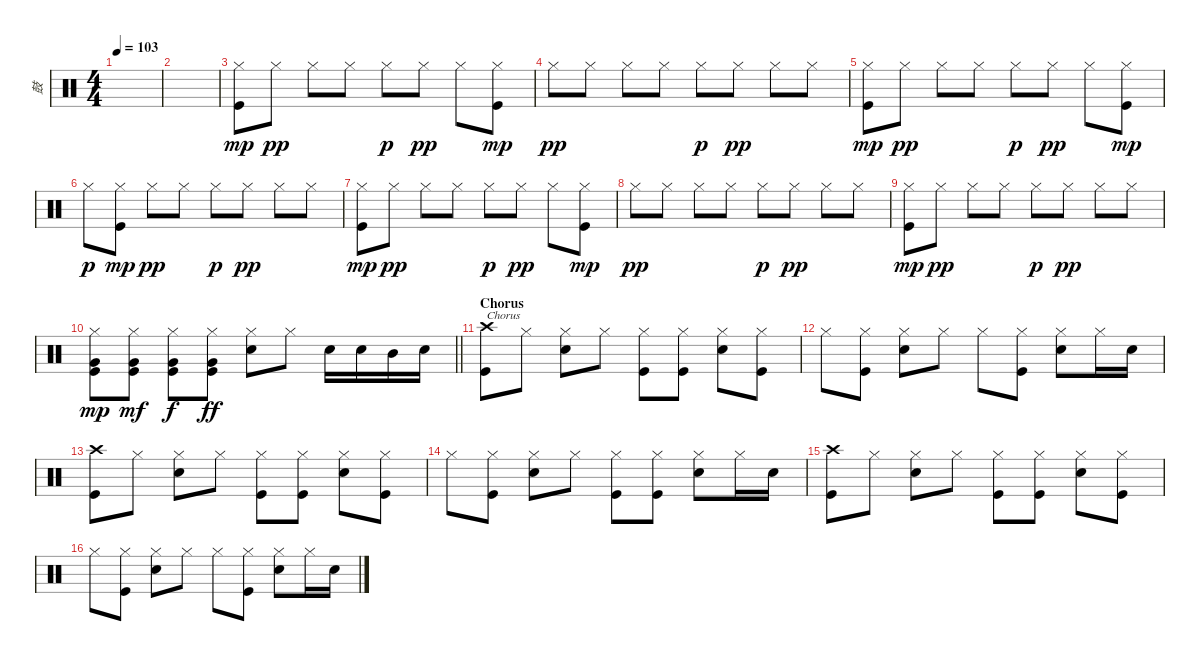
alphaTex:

\track ("鼓" "鼓") {instrument percussion}
\staff {score}
\articulation defaults
\ts (4 4)
\tempo 103
\clef neutral
\ks c
|
|
("Hi-Hat (closed)" "Kick (hit)").8{dy mp} "Hi-Hat (closed)".8{dy pp} "Hi-Hat (closed)".8 "Hi-Hat (closed)".8 "Hi-Hat (closed)".8{dy p} "Hi-Hat (closed)".8{dy pp} "Hi-Hat (closed)".8 ("Hi-Hat (closed)" "Kick (hit)").8{dy mp} |
"Hi-Hat (closed)".8{dy pp} "Hi-Hat (closed)".8 "Hi-Hat (closed)".8 "Hi-Hat (closed)".8 "Hi-Hat (closed)".8{dy p} "Hi-Hat (closed)".8{dy pp} "Hi-Hat (closed)".8 "Hi-Hat (closed)".8 |
("Hi-Hat (closed)" "Kick (hit)").8{dy mp} "Hi-Hat (closed)".8{dy pp} "Hi-Hat (closed)".8 "Hi-Hat (closed)".8 "Hi-Hat (closed)".8{dy p} "Hi-Hat (closed)".8{dy pp} "Hi-Hat (closed)".8 ("Hi-Hat (closed)" "Kick (hit)").8{dy mp} |
"Hi-Hat (closed)".8{dy p} ("Hi-Hat (closed)" "Kick (hit)").8{dy mp} "Hi-Hat (closed)".8{dy pp} "Hi-Hat (closed)".8 "Hi-Hat (closed)".8{dy p} "Hi-Hat (closed)".8{dy pp} "Hi-Hat (closed)".8 "Hi-Hat (closed)".8 |
("Hi-Hat (closed)" "Kick (hit)").8{dy mp} "Hi-Hat (closed)".8{dy pp} "Hi-Hat (closed)".8 "Hi-Hat (closed)".8 "Hi-Hat (closed)".8{dy p} "Hi-Hat (closed)".8{dy pp} "Hi-Hat (closed)".8 ("Hi-Hat (closed)" "Kick (hit)").8{dy mp} |
"Hi-Hat (closed)".8{dy pp} "Hi-Hat (closed)".8 "Hi-Hat (closed)".8 "Hi-Hat (closed)".8 "Hi-Hat (closed)".8{dy p} "Hi-Hat (closed)".8{dy pp} "Hi-Hat (closed)".8 "Hi-Hat (closed)".8 |
("Hi-Hat (closed)" "Kick (hit)").8{dy mp} "Hi-Hat (closed)".8{dy pp} "Hi-Hat (closed)".8 "Hi-Hat (closed)".8 "Hi-Hat (closed)".8{dy p} "Hi-Hat (closed)".8{dy pp} "Hi-Hat (closed)".8 "Hi-Hat (closed)".8 |
\barLineRight lightlight
("Very Low Tom (hit)" "Kick (hit)" "Hi-Hat (closed)").8{dy mp} ("Very Low Tom (hit)" "Kick (hit)" "Hi-Hat (closed)").8{dy mf} ("Very Low Tom (hit)" "Kick (hit)" "Hi-Hat (closed)").8{dy f} ("Very Low Tom (hit)" "Kick (hit)" "Hi-Hat (closed)").8{dy ff} ("Hi-Hat (closed)" "Snare (hit) 2").8 "Hi-Hat (closed)".8 "Snare (hit) 2".16 "Snare (hit) 2".16 "Mid Tom (hit)".16 "Snare (hit) 2".16 |
\section ("" "Chorus")
("Crash high (hit)" "Kick (hit)").8{txt "Chorus"} "Hi-Hat (closed)".8 ("Hi-Hat (closed)" "Snare (hit) 2").8 "Hi-Hat (closed)".8 ("Hi-Hat (closed)" "Kick (hit)").8 ("Hi-Hat (closed)" "Kick (hit)").8 ("Hi-Hat (closed)" "Snare (hit) 2").8 ("Hi-Hat (closed)" "Kick (hit)").8 |
"Hi-Hat (closed)".8 ("Hi-Hat (closed)" "Kick (hit)").8 ("Hi-Hat (closed)" "Snare (hit) 2").8 "Hi-Hat (closed)".8 "Hi-Hat (closed)".8 ("Hi-Hat (closed)" "Kick (hit)").8 ("Hi-Hat (closed)" "Snare (hit) 2").8 "Hi-Hat (closed)".16 "Snare (hit) 2".16 |
("Crash high (hit)" "Kick (hit)").8 "Hi-Hat (closed)".8 ("Hi-Hat (closed)" "Snare (hit) 2").8 "Hi-Hat (closed)".8 ("Hi-Hat (closed)" "Kick (hit)").8 ("Hi-Hat (closed)" "Kick (hit)").8 ("Hi-Hat (closed)" "Snare (hit) 2").8 ("Hi-Hat (closed)" "Kick (hit)").8 |
"Hi-Hat (closed)".8 ("Hi-Hat (closed)" "Kick (hit)").8 ("Hi-Hat (closed)" "Snare (hit) 2").8 "Hi-Hat (closed)".8 ("Hi-Hat (closed)" "Kick (hit)").8 ("Hi-Hat (closed)" "Kick (hit)").8 ("Hi-Hat (closed)" "Snare (hit) 2").8 "Hi-Hat (closed)".16 "Snare (hit) 2".16 |
("Crash high (hit)" "Kick (hit)").8 "Hi-Hat (closed)".8 ("Hi-Hat (closed)" "Snare (hit) 2").8 "Hi-Hat (closed)".8 ("Hi-Hat (closed)" "Kick (hit)").8 ("Hi-Hat (closed)" "Kick (hit)").8 ("Hi-Hat (closed)" "Snare (hit) 2").8 ("Hi-Hat (closed)" "Kick (hit)").8 |
"Hi-Hat (closed)".8 ("Hi-Hat (closed)" "Kick (hit)").8 ("Hi-Hat (closed)" "Snare (hit) 2").8 "Hi-Hat (closed)".8 "Hi-Hat (closed)".8 ("Hi-Hat (closed)" "Kick (hit)").8 ("Hi-Hat (closed)" "Snare (hit) 2").8 "Hi-Hat (closed)".16 "Snare (hit) 2".16
